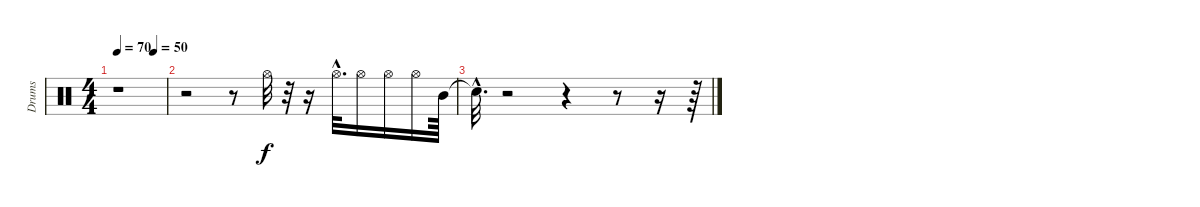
\track ("Drums" "Drums") {instrument percussion}
\staff {score}
\articulation defaults
\ts (4 4)
\tempo 70
\tempo (50 0.75)
\clef neutral
\ks c
r.1{dy f} |
r.2 r.8 "Hi-Hat (open)".32 r.32 r.16 "Hi-Hat (open)"{hac}.32{d} "Hi-Hat (open)".16 "Hi-Hat (open)".16 "Hi-Hat (open)".16 "Mid Tom (hit)".64 |
"Snare (hit)"{hac t}.32{d} r.2 r.4 r.8 r.16 r.64
